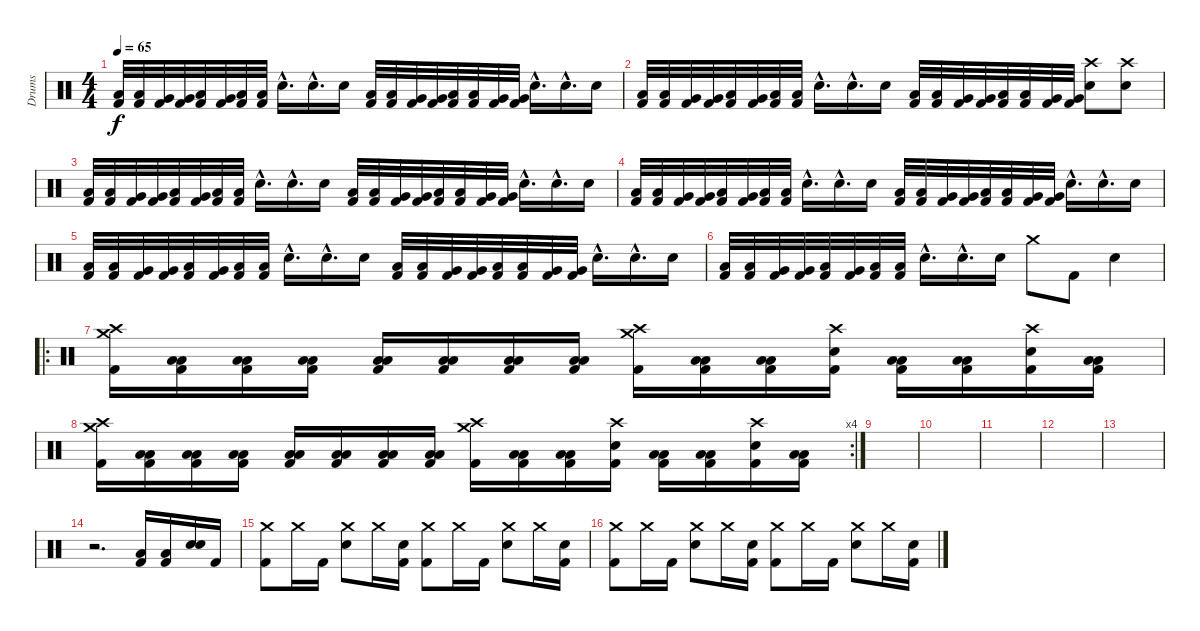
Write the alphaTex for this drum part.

\track ("Drums" "Drums") {instrument percussion}
\staff {score}
\articulation defaults
\ts (4 4)
\tempo 65
\clef neutral
\ks c
("Low Tom (hit)" "Kick (hit) 2").32{dy f} ("Low Tom (hit)" "Kick (hit) 2").32 ("Very Low Tom (hit)" "Kick (hit) 2").32 ("Very Low Tom (hit)" "Kick (hit) 2").32 ("Low Tom (hit)" "Kick (hit) 2").32 ("Very Low Tom (hit)" "Kick (hit) 2").32 ("Low Tom (hit)" "Kick (hit) 2").32 ("Low Tom (hit)" "Kick (hit) 2").32 "Electric Snare (hit)"{hac}.16{d} "Electric Snare (hit)"{hac}.16{d} "Electric Snare (hit)".16 ("Low Tom (hit)" "Kick (hit) 2").32 ("Low Tom (hit)" "Kick (hit) 2").32 ("Very Low Tom (hit)" "Kick (hit) 2").32 ("Very Low Tom (hit)" "Kick (hit) 2").32 ("Low Tom (hit)" "Kick (hit) 2").32 ("Low Tom (hit)" "Kick (hit) 2").32 ("Very Low Tom (hit)" "Kick (hit) 2").32 ("Very Low Tom (hit)" "Kick (hit) 2").32 "Electric Snare (hit)"{hac}.16{d} "Electric Snare (hit)"{hac}.16{d} "Electric Snare (hit)".16 |
("Low Tom (hit)" "Kick (hit) 2").32 ("Low Tom (hit)" "Kick (hit) 2").32 ("Very Low Tom (hit)" "Kick (hit) 2").32 ("Very Low Tom (hit)" "Kick (hit) 2").32 ("Low Tom (hit)" "Kick (hit) 2").32 ("Very Low Tom (hit)" "Kick (hit) 2").32 ("Low Tom (hit)" "Kick (hit) 2").32 ("Low Tom (hit)" "Kick (hit) 2").32 "Electric Snare (hit)"{hac}.16{d} "Electric Snare (hit)"{hac}.16{d} "Electric Snare (hit)".16 ("Low Tom (hit)" "Kick (hit) 2").32 ("Low Tom (hit)" "Kick (hit) 2").32 ("Very Low Tom (hit)" "Kick (hit) 2").32 ("Very Low Tom (hit)" "Kick (hit) 2").32 ("Low Tom (hit)" "Kick (hit) 2").32 ("Low Tom (hit)" "Kick (hit) 2").32 ("Very Low Tom (hit)" "Kick (hit) 2").32 ("Very Low Tom (hit)" "Kick (hit) 2").32 ("Crash high (hit)" "Electric Snare (hit)").8 ("Crash high (hit)" "Electric Snare (hit)").8 |
("Low Tom (hit)" "Kick (hit) 2").32 ("Low Tom (hit)" "Kick (hit) 2").32 ("Very Low Tom (hit)" "Kick (hit) 2").32 ("Very Low Tom (hit)" "Kick (hit) 2").32 ("Low Tom (hit)" "Kick (hit) 2").32 ("Very Low Tom (hit)" "Kick (hit) 2").32 ("Low Tom (hit)" "Kick (hit) 2").32 ("Low Tom (hit)" "Kick (hit) 2").32 "Electric Snare (hit)"{hac}.16{d} "Electric Snare (hit)"{hac}.16{d} "Electric Snare (hit)".16 ("Low Tom (hit)" "Kick (hit) 2").32 ("Low Tom (hit)" "Kick (hit) 2").32 ("Very Low Tom (hit)" "Kick (hit) 2").32 ("Very Low Tom (hit)" "Kick (hit) 2").32 ("Low Tom (hit)" "Kick (hit) 2").32 ("Low Tom (hit)" "Kick (hit) 2").32 ("Very Low Tom (hit)" "Kick (hit) 2").32 ("Very Low Tom (hit)" "Kick (hit) 2").32 "Electric Snare (hit)"{hac}.16{d} "Electric Snare (hit)"{hac}.16{d} "Electric Snare (hit)".16 |
("Low Tom (hit)" "Kick (hit) 2").32 ("Low Tom (hit)" "Kick (hit) 2").32 ("Very Low Tom (hit)" "Kick (hit) 2").32 ("Very Low Tom (hit)" "Kick (hit) 2").32 ("Low Tom (hit)" "Kick (hit) 2").32 ("Very Low Tom (hit)" "Kick (hit) 2").32 ("Low Tom (hit)" "Kick (hit) 2").32 ("Low Tom (hit)" "Kick (hit) 2").32 "Electric Snare (hit)"{hac}.16{d} "Electric Snare (hit)"{hac}.16{d} "Electric Snare (hit)".16 ("Low Tom (hit)" "Kick (hit) 2").32 ("Low Tom (hit)" "Kick (hit) 2").32 ("Very Low Tom (hit)" "Kick (hit) 2").32 ("Very Low Tom (hit)" "Kick (hit) 2").32 ("Low Tom (hit)" "Kick (hit) 2").32 ("Low Tom (hit)" "Kick (hit) 2").32 ("Very Low Tom (hit)" "Kick (hit) 2").32 ("Very Low Tom (hit)" "Kick (hit) 2").32 "Electric Snare (hit)"{hac}.16{d} "Electric Snare (hit)"{hac}.16{d} "Electric Snare (hit)".16 |
("Low Tom (hit)" "Kick (hit) 2").32 ("Low Tom (hit)" "Kick (hit) 2").32 ("Very Low Tom (hit)" "Kick (hit) 2").32 ("Very Low Tom (hit)" "Kick (hit) 2").32 ("Low Tom (hit)" "Kick (hit) 2").32 ("Very Low Tom (hit)" "Kick (hit) 2").32 ("Low Tom (hit)" "Kick (hit) 2").32 ("Low Tom (hit)" "Kick (hit) 2").32 "Electric Snare (hit)"{hac}.16{d} "Electric Snare (hit)"{hac}.16{d} "Electric Snare (hit)".16 ("Low Tom (hit)" "Kick (hit) 2").32 ("Low Tom (hit)" "Kick (hit) 2").32 ("Very Low Tom (hit)" "Kick (hit) 2").32 ("Very Low Tom (hit)" "Kick (hit) 2").32 ("Low Tom (hit)" "Kick (hit) 2").32 ("Low Tom (hit)" "Kick (hit) 2").32 ("Very Low Tom (hit)" "Kick (hit) 2").32 ("Very Low Tom (hit)" "Kick (hit) 2").32 "Electric Snare (hit)"{hac}.16{d} "Electric Snare (hit)"{hac}.16{d} "Electric Snare (hit)".16 |
("Low Tom (hit)" "Kick (hit) 2").32 ("Low Tom (hit)" "Kick (hit) 2").32 ("Very Low Tom (hit)" "Kick (hit) 2").32 ("Very Low Tom (hit)" "Kick (hit) 2").32 ("Low Tom (hit)" "Kick (hit) 2").32 ("Very Low Tom (hit)" "Kick (hit) 2").32 ("Low Tom (hit)" "Kick (hit) 2").32 ("Low Tom (hit)" "Kick (hit) 2").32 "Electric Snare (hit)"{hac}.16{d} "Electric Snare (hit)"{hac}.16{d} "Electric Snare (hit)".16 "Crash medium (hit)".8 "Kick (hit) 2".8 "Electric Snare (hit)".4 |
\ro
("Crash medium (hit)" "Crash high (hit)" "Kick (hit) 2").16 ("Low Tom (hit)" "Low Floor Tom (hit)" "Kick (hit) 2").16 ("Low Tom (hit)" "Low Floor Tom (hit)" "Kick (hit) 2").16 ("Low Tom (hit)" "Low Floor Tom (hit)" "Kick (hit) 2").16 ("Low Tom (hit)" "Low Floor Tom (hit)" "Kick (hit) 2").16 ("Low Tom (hit)" "Low Floor Tom (hit)" "Kick (hit) 2").16 ("Low Tom (hit)" "Low Floor Tom (hit)" "Kick (hit) 2").16 ("Low Tom (hit)" "Low Floor Tom (hit)" "Kick (hit) 2").16 ("Crash medium (hit)" "Crash high (hit)" "Kick (hit) 2").16 ("Low Tom (hit)" "Low Floor Tom (hit)" "Kick (hit) 2").16 ("Low Tom (hit)" "Low Floor Tom (hit)" "Kick (hit) 2").16 ("Crash high (hit)" "Electric Snare (hit)" "Kick (hit) 2").16 ("Low Tom (hit)" "Low Floor Tom (hit)" "Kick (hit) 2").16 ("Low Tom (hit)" "Low Floor Tom (hit)" "Kick (hit) 2").16 ("Crash high (hit)" "Electric Snare (hit)" "Kick (hit) 2").16 ("Low Tom (hit)" "Low Floor Tom (hit)" "Kick (hit) 2").16 |
\rc 4
("Crash medium (hit)" "Crash high (hit)" "Kick (hit) 2").16 ("Low Tom (hit)" "Low Floor Tom (hit)" "Kick (hit) 2").16 ("Low Tom (hit)" "Low Floor Tom (hit)" "Kick (hit) 2").16 ("Low Tom (hit)" "Low Floor Tom (hit)" "Kick (hit) 2").16 ("Low Tom (hit)" "Low Floor Tom (hit)" "Kick (hit) 2").16 ("Low Tom (hit)" "Low Floor Tom (hit)" "Kick (hit) 2").16 ("Low Tom (hit)" "Low Floor Tom (hit)" "Kick (hit) 2").16 ("Low Tom (hit)" "Low Floor Tom (hit)" "Kick (hit) 2").16 ("Crash medium (hit)" "Crash high (hit)" "Kick (hit) 2").16 ("Low Tom (hit)" "Low Floor Tom (hit)" "Kick (hit) 2").16 ("Low Tom (hit)" "Low Floor Tom (hit)" "Kick (hit) 2").16 ("Crash high (hit)" "Electric Snare (hit)" "Kick (hit) 2").16 ("Low Tom (hit)" "Low Floor Tom (hit)" "Kick (hit) 2").16 ("Low Tom (hit)" "Low Floor Tom (hit)" "Kick (hit) 2").16 ("Crash high (hit)" "Electric Snare (hit)" "Kick (hit) 2").16 ("Low Tom (hit)" "Low Floor Tom (hit)" "Kick (hit) 2").16 |
|
|
|
|
|
r.2{d} ("Low Tom (hit)" "Kick (hit) 2").16 ("Low Tom (hit)" "Kick (hit) 2").16 ("Electric Snare (hit)" "Electric Snare (hit)").16 "Kick (hit) 2".16 |
("Crash medium (hit)" "Kick (hit) 2").8 "Crash medium (hit)".16 "Kick (hit) 2".16 ("Crash medium (hit)" "Electric Snare (hit)").8 "Crash medium (hit)".16 ("Electric Snare (hit)" "Kick (hit) 2").16 ("Crash medium (hit)" "Kick (hit) 2").8 "Crash medium (hit)".16 "Kick (hit) 2".16 ("Crash medium (hit)" "Electric Snare (hit)").8 "Crash medium (hit)".16 ("Electric Snare (hit)" "Kick (hit) 2").16 |
("Crash medium (hit)" "Kick (hit) 2").8 "Crash medium (hit)".16 "Kick (hit) 2".16 ("Crash medium (hit)" "Electric Snare (hit)").8 "Crash medium (hit)".16 ("Electric Snare (hit)" "Kick (hit) 2").16 ("Crash medium (hit)" "Kick (hit) 2").8 "Crash medium (hit)".16 "Kick (hit) 2".16 ("Crash medium (hit)" "Electric Snare (hit)").8 "Crash medium (hit)".16 ("Electric Snare (hit)" "Kick (hit) 2").16
